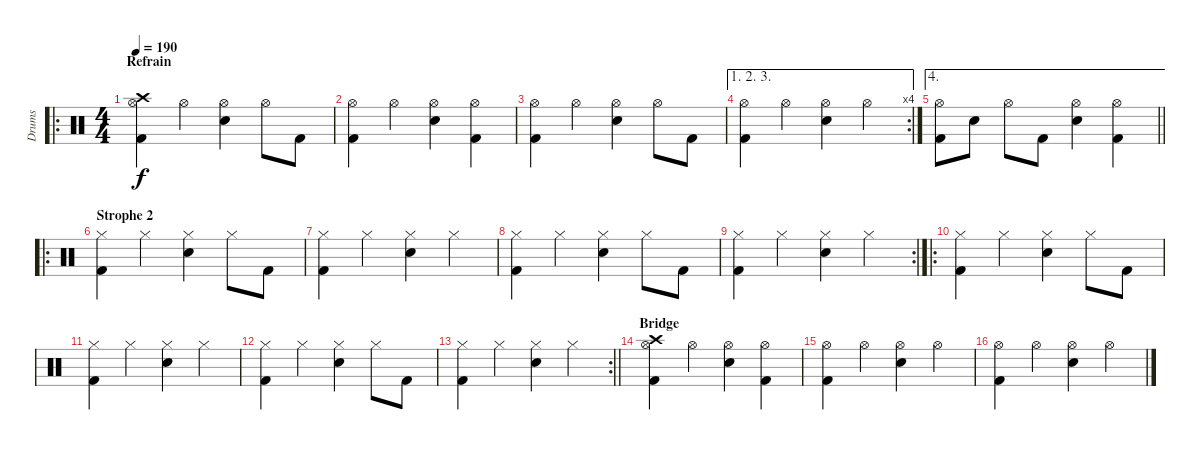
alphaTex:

\track ("Drums" "Drums") {instrument percussion}
\staff {score}
\articulation defaults
\ro
\ts (4 4)
\section ("" "Refrain")
\tempo 190
\clef neutral
\ks c
("Crash high (hit)" "Hi-Hat (open)" "Kick (hit) 2").4{dy f} "Hi-Hat (open)".4 ("Hi-Hat (open)" "Snare (hit) 2").4 "Hi-Hat (open)".8 "Kick (hit) 2".8 |
("Hi-Hat (open)" "Kick (hit) 2").4 "Hi-Hat (open)".4 ("Hi-Hat (open)" "Snare (hit) 2").4 ("Hi-Hat (open)" "Kick (hit) 2").4 |
("Hi-Hat (open)" "Kick (hit) 2").4 "Hi-Hat (open)".4 ("Hi-Hat (open)" "Snare (hit) 2").4 "Hi-Hat (open)".8 "Kick (hit) 2".8 |
\ae (1 2 3)
\rc 4
("Hi-Hat (open)" "Kick (hit) 2").4 "Hi-Hat (open)".4 ("Hi-Hat (open)" "Snare (hit) 2").4 "Hi-Hat (open)".4 |
\ae 4
\barLineRight lightlight
("Hi-Hat (open)" "Kick (hit) 2").8 "Snare (hit) 2".8 "Hi-Hat (open)".8 "Kick (hit) 2".8 ("Hi-Hat (open)" "Snare (hit) 2").4 ("Hi-Hat (open)" "Kick (hit) 2").4 |
\ro
\section ("" "Strophe 2")
("Hi-Hat (closed)" "Kick (hit) 2").4 "Hi-Hat (closed)".4 ("Hi-Hat (closed)" "Snare (hit) 2").4 "Hi-Hat (closed)".8 "Kick (hit) 2".8 |
("Hi-Hat (closed)" "Kick (hit) 2").4 "Hi-Hat (closed)".4 ("Hi-Hat (closed)" "Snare (hit) 2").4 "Hi-Hat (closed)".4 |
("Hi-Hat (closed)" "Kick (hit) 2").4 "Hi-Hat (closed)".4 ("Hi-Hat (closed)" "Snare (hit) 2").4 "Hi-Hat (closed)".8 "Kick (hit) 2".8 |
\rc 2
("Hi-Hat (closed)" "Kick (hit) 2").4 "Hi-Hat (closed)".4 ("Hi-Hat (closed)" "Snare (hit) 2").4 "Hi-Hat (closed)".4 |
\ro
("Hi-Hat (closed)" "Kick (hit) 2").4 "Hi-Hat (closed)".4 ("Hi-Hat (closed)" "Snare (hit) 2").4 "Hi-Hat (closed)".8 "Kick (hit) 2".8 |
("Hi-Hat (closed)" "Kick (hit) 2").4 "Hi-Hat (closed)".4 ("Hi-Hat (closed)" "Snare (hit) 2").4 "Hi-Hat (closed)".4 |
("Hi-Hat (closed)" "Kick (hit) 2").4 "Hi-Hat (closed)".4 ("Hi-Hat (closed)" "Snare (hit) 2").4 "Hi-Hat (closed)".8 "Kick (hit) 2".8 |
\rc 2
\barLineRight lightlight
("Hi-Hat (closed)" "Kick (hit) 2").4 "Hi-Hat (closed)".4 ("Hi-Hat (closed)" "Snare (hit) 2").4 "Hi-Hat (closed)".4 |
\section ("" "Bridge")
("Crash high (hit)" "Hi-Hat (open)" "Kick (hit) 2").4 "Hi-Hat (open)".4 ("Hi-Hat (open)" "Snare (hit) 2").4 ("Hi-Hat (open)" "Kick (hit) 2").4 |
("Hi-Hat (open)" "Kick (hit) 2").4 "Hi-Hat (open)".4 ("Hi-Hat (open)" "Snare (hit) 2").4 "Hi-Hat (open)".4 |
("Hi-Hat (open)" "Kick (hit) 2").4 "Hi-Hat (open)".4 ("Hi-Hat (open)" "Snare (hit) 2").4 "Hi-Hat (open)".4
